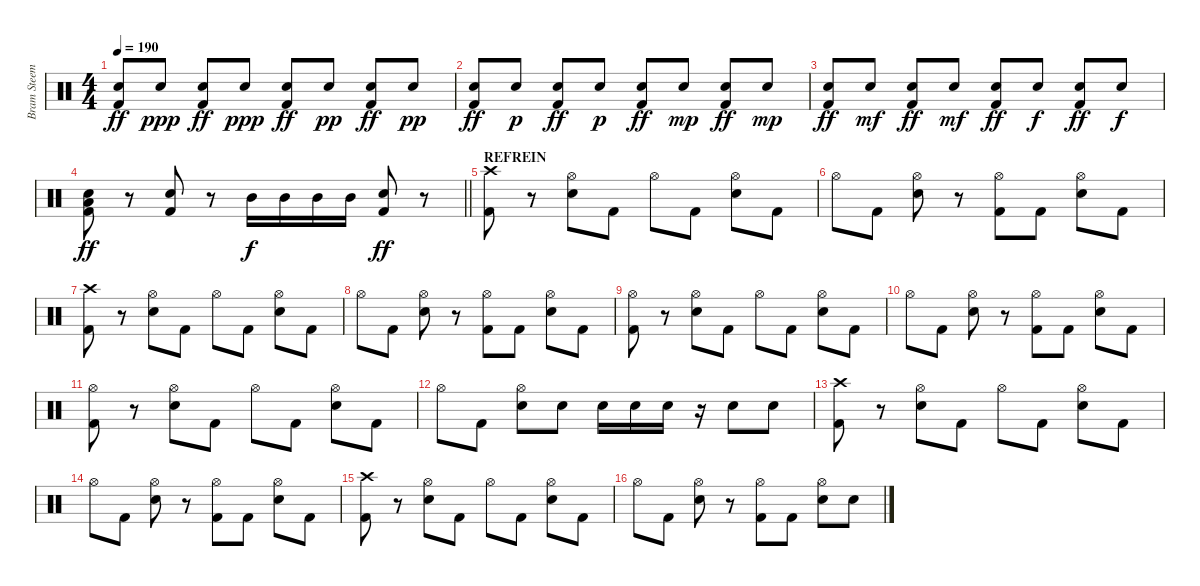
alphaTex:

\track ("Bram Steemans" "Bram Steem") {instrument percussion}
\staff {score}
\articulation defaults
\ts (4 4)
\tempo 190
\clef neutral
\ks c
("Snare (hit) 2" "Kick (hit) 2").8{dy ff} "Snare (hit) 2".8{dy ppp} ("Snare (hit) 2" "Kick (hit) 2").8{dy ff} "Snare (hit) 2".8{dy ppp} ("Snare (hit) 2" "Kick (hit) 2").8{dy ff} "Snare (hit) 2".8{dy pp} ("Snare (hit) 2" "Kick (hit) 2").8{dy ff} "Snare (hit) 2".8{dy pp} |
("Snare (hit) 2" "Kick (hit) 2").8{dy ff} "Snare (hit) 2".8{dy p} ("Snare (hit) 2" "Kick (hit) 2").8{dy ff} "Snare (hit) 2".8{dy p} ("Snare (hit) 2" "Kick (hit) 2").8{dy ff} "Snare (hit) 2".8{dy mp} ("Snare (hit) 2" "Kick (hit) 2").8{dy ff} "Snare (hit) 2".8{dy mp} |
("Snare (hit) 2" "Kick (hit) 2").8{dy ff} "Snare (hit) 2".8{dy mf} ("Snare (hit) 2" "Kick (hit) 2").8{dy ff} "Snare (hit) 2".8{dy mf} ("Snare (hit) 2" "Kick (hit) 2").8{dy ff} "Snare (hit) 2".8{dy f} ("Snare (hit) 2" "Kick (hit) 2").8{dy ff} "Snare (hit) 2".8{dy f} |
\barLineRight lightlight
("Low Floor Tom (hit)" "Snare (hit) 2" "Kick (hit) 2").8{dy ff} r.8 ("Snare (hit) 2" "Kick (hit) 2").8 r.8 "Mid Tom (hit)".16{dy f} "Mid Tom (hit)".16 "Mid Tom (hit)".16 "Mid Tom (hit)".16 ("Snare (hit) 2" "Kick (hit) 2").8{dy ff} r.8 |
\section ("" "REFREIN")
("Crash high (hit)" "Kick (hit) 2").8 r.8 ("Hi-Hat (open)" "Snare (hit) 2").8 "Kick (hit) 2".8 "Hi-Hat (open)".8 "Kick (hit) 2".8 ("Hi-Hat (open)" "Snare (hit) 2").8 "Kick (hit) 2".8 |
"Hi-Hat (open)".8 "Kick (hit) 2".8 ("Hi-Hat (open)" "Snare (hit) 2").8 r.8 ("Hi-Hat (open)" "Kick (hit) 2").8 "Kick (hit) 2".8 ("Hi-Hat (open)" "Snare (hit) 2").8 "Kick (hit) 2".8 |
("Crash high (hit)" "Kick (hit) 2").8 r.8 ("Hi-Hat (open)" "Snare (hit) 2").8 "Kick (hit) 2".8 "Hi-Hat (open)".8 "Kick (hit) 2".8 ("Hi-Hat (open)" "Snare (hit) 2").8 "Kick (hit) 2".8 |
"Hi-Hat (open)".8 "Kick (hit) 2".8 ("Hi-Hat (open)" "Snare (hit) 2").8 r.8 ("Hi-Hat (open)" "Kick (hit) 2").8 "Kick (hit) 2".8 ("Hi-Hat (open)" "Snare (hit) 2").8 "Kick (hit) 2".8 |
("Hi-Hat (open)" "Kick (hit) 2").8 r.8 ("Hi-Hat (open)" "Snare (hit) 2").8 "Kick (hit) 2".8 "Hi-Hat (open)".8 "Kick (hit) 2".8 ("Hi-Hat (open)" "Snare (hit) 2").8 "Kick (hit) 2".8 |
"Hi-Hat (open)".8 "Kick (hit) 2".8 ("Hi-Hat (open)" "Snare (hit) 2").8 r.8 ("Hi-Hat (open)" "Kick (hit) 2").8 "Kick (hit) 2".8 ("Hi-Hat (open)" "Snare (hit) 2").8 "Kick (hit) 2".8 |
("Hi-Hat (open)" "Kick (hit) 2").8 r.8 ("Hi-Hat (open)" "Snare (hit) 2").8 "Kick (hit) 2".8 "Hi-Hat (open)".8 "Kick (hit) 2".8 ("Hi-Hat (open)" "Snare (hit) 2").8 "Kick (hit) 2".8 |
"Hi-Hat (open)".8 "Kick (hit) 2".8 ("Hi-Hat (open)" "Snare (hit) 2").8 "Snare (hit) 2".8 "Snare (hit) 2".16 "Snare (hit) 2".16 "Snare (hit) 2".16 r.16 "Snare (hit) 2".8 "Snare (hit) 2".8 |
("Crash high (hit)" "Kick (hit) 2").8 r.8 ("Hi-Hat (open)" "Snare (hit) 2").8 "Kick (hit) 2".8 "Hi-Hat (open)".8 "Kick (hit) 2".8 ("Hi-Hat (open)" "Snare (hit) 2").8 "Kick (hit) 2".8 |
"Hi-Hat (open)".8 "Kick (hit) 2".8 ("Hi-Hat (open)" "Snare (hit) 2").8 r.8 ("Hi-Hat (open)" "Kick (hit) 2").8 "Kick (hit) 2".8 ("Hi-Hat (open)" "Snare (hit) 2").8 "Kick (hit) 2".8 |
("Crash high (hit)" "Kick (hit) 2").8 r.8 ("Hi-Hat (open)" "Snare (hit) 2").8 "Kick (hit) 2".8 "Hi-Hat (open)".8 "Kick (hit) 2".8 ("Hi-Hat (open)" "Snare (hit) 2").8 "Kick (hit) 2".8 |
"Hi-Hat (open)".8 "Kick (hit) 2".8 ("Hi-Hat (open)" "Snare (hit) 2").8 r.8 ("Hi-Hat (open)" "Kick (hit) 2").8 "Kick (hit) 2".8 ("Hi-Hat (open)" "Snare (hit) 2").8 "Snare (hit) 2".8
